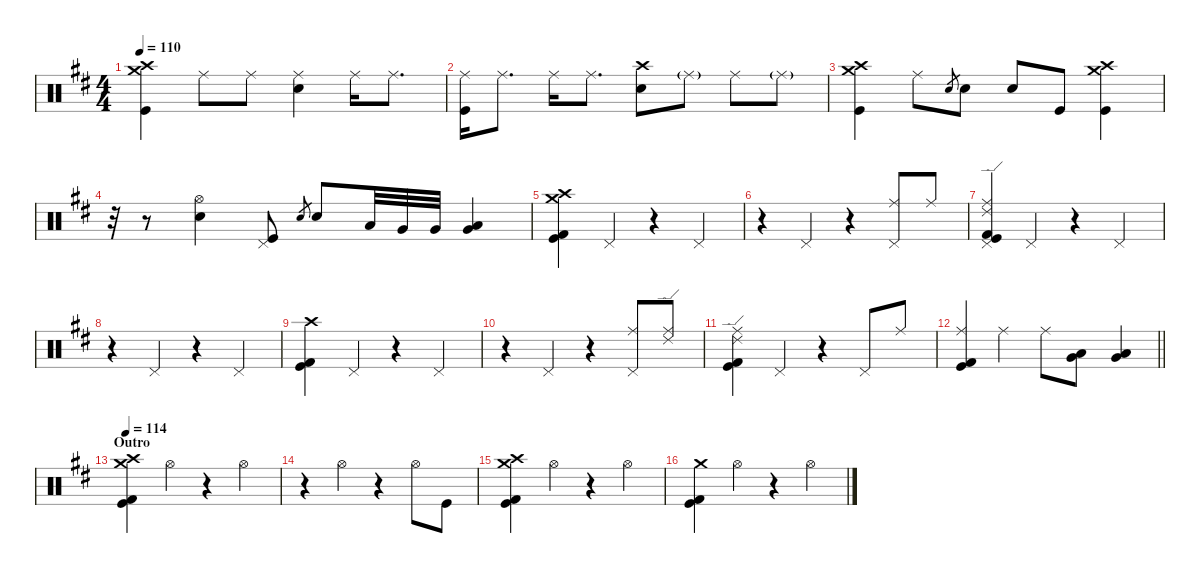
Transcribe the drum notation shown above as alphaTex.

\defaultSystemsLayout 4
\hideDynamics
\bracketExtendMode nobrackets
\singleTrackTrackNamePolicy hidden
\multiTrackTrackNamePolicy hidden
\firstSystemTrackNameMode fullname
\firstSystemTrackNameOrientation horizontal
\otherSystemsTrackNameOrientation horizontal
\track ("Aaron Harris" "drm.") {instrument percussion}
\staff {score}
\articulation defaults
\ts (4 4)
\tempo 110
\clef neutral
\ks bminor
("Crash medium (hit)"{acc forcenatural} "Crash high (hit)"{acc forcenatural} "Kick (hit)"{acc forcenatural}).4{dy f beam Down} "Ride (middle)"{acc forcenatural}.8{beam Down} "Ride (middle)"{acc forcenatural}.8{beam Down} ("Ride (middle)"{acc forcenatural} "Snare (hit) 2"{acc forcenatural}).4{beam Down} "Ride (middle)"{acc forcenatural}.16{dy mf beam Down} "Ride (middle)"{acc forcenatural}.8{d dy f beam Down} |
("Ride (middle)"{acc forcenatural} "Kick (hit)"{acc forcenatural}).16{beam Down} "Ride (middle)"{acc forcenatural}.8{d beam Down} "Ride (middle)"{acc forcenatural}.16{beam Down} "Ride (middle)"{acc forcenatural}.8{d beam Down} ("Crash high (hit)"{acc forcenatural} "Snare (hit) 2"{acc forcenatural}).8{beam Down} "Ride (middle)"{g acc forcenatural}.8{dy mf beam Down} "Ride (middle)"{acc forcenatural}.8{dy f beam Down} "Ride (middle)"{g acc forcenatural}.8{dy mf beam Down} |
("Crash medium (hit)"{acc forcenatural} "Crash high (hit)"{acc forcenatural} "Kick (hit)"{acc forcenatural}).4{dy f beam Down} "Ride (middle)"{acc forcenatural}.8{beam Down} "Electric Snare (hit)"{acc forcenatural}.8{gr beam Up} "Snare (hit) 2"{acc forcenatural}.8{dy ff beam Down} "Snare (hit) 2"{acc forcenatural}.8{beam Up} "Kick (hit)"{acc forcenatural}.8{dy f beam Up} ("Crash medium (hit)"{acc forcenatural} "Crash high (hit)"{acc forcenatural} "Kick (hit)"{acc forcenatural}).4{beam Down} |
r.32{beam Down} r.8{beam Down} ("Hi-Hat (open)"{acc forcenatural} "Snare (hit) 2"{acc forcenatural}).4{beam Down} ("Pedal Hi-Hat (hit)"{acc forcenatural} "Kick (hit)"{acc forcenatural}).8{beam Up} "Electric Snare (hit)"{acc forcenatural}.8{gr dy ff beam Up} "Snare (hit) 2"{acc forcenatural}.8{dy f beam Up} "Low Tom (hit)"{acc forcenatural}.32{beam Up} "Very Low Tom (hit)"{acc forcenatural}.32{beam Up} "Very Low Tom (hit)"{acc forcenatural}.32{beam Up} ("Very Low Tom (hit)"{acc forcenatural} "Low Floor Tom (hit)"{acc forcenatural}).4{beam Up} |
("Crash medium (hit)"{acc forcenatural} "Crash high (hit)"{acc forcenatural} "Kick (hit) 2"{acc forcenatural} "Kick (hit)"{acc forcenatural}).4{beam Down} "Pedal Hi-Hat (hit)"{acc forcenatural}.4{beam Up} r.4{beam Up} "Pedal Hi-Hat (hit)"{acc forcenatural}.4{dy mf beam Up} |
r.4{beam Down} "Pedal Hi-Hat (hit)"{acc forcenatural}.4{beam Up} r.4{beam Up} ("Ride (middle)"{acc forcenatural} "Pedal Hi-Hat (hit)"{acc forcenatural}).8{dy p beam Up} "Ride (middle)"{acc forcenatural}.8{dy f beam Up} |
("Ride (edge) 2"{acc forcenatural} "Ride (middle)"{acc forcenatural} "Pedal Hi-Hat (hit)"{acc forcenatural} "Kick (hit) 2"{acc forcenatural} "Kick (hit)"{acc forcenatural}).4{beam Up} "Pedal Hi-Hat (hit)"{acc forcenatural}.4{beam Up} r.4{beam Up} "Pedal Hi-Hat (hit)"{acc forcenatural}.4{dy mp beam Up} |
r.4{beam Down} "Pedal Hi-Hat (hit)"{acc forcenatural}.4{dy mf beam Up} r.4{beam Up} "Pedal Hi-Hat (hit)"{acc forcenatural}.4{beam Up} |
("Crash high (hit)"{acc forcenatural} "Kick (hit) 2"{acc forcenatural} "Kick (hit)"{acc forcenatural}).4{beam Down} "Pedal Hi-Hat (hit)"{acc forcenatural}.4{beam Up} r.4{beam Up} "Pedal Hi-Hat (hit)"{acc forcenatural}.4{beam Up} |
r.4{beam Down} "Pedal Hi-Hat (hit)"{acc forcenatural}.4{beam Up} r.4{beam Up} ("Ride (middle)"{acc forcenatural} "Pedal Hi-Hat (hit)"{acc forcenatural}).8{dy p beam Up} ("Ride (middle)"{acc forcenatural} "Ride (edge) 2"{acc forcenatural}).8{dy f beam Up} |
("Ride (middle)"{acc forcenatural} "Ride (edge) 2"{acc forcenatural} "Kick (hit) 2"{acc forcenatural} "Kick (hit)"{acc forcenatural}).4{beam Down} "Pedal Hi-Hat (hit)"{acc forcenatural}.4{dy mf beam Up} r.4{beam Up} "Pedal Hi-Hat (hit)"{acc forcenatural}.8{beam Up} "Ride (middle)"{acc forcenatural}.8{dy mp beam Up} |
\barLineRight lightlight
("Ride (middle)"{acc forcenatural} "Kick (hit) 2"{acc forcenatural} "Kick (hit)"{acc forcenatural}).4{dy f beam Up} "Ride (middle)"{acc forcenatural}.4{dy mf beam Down} "Ride (middle)"{acc forcenatural}.8{dy mp beam Down} ("Low Tom (hit)"{acc forcenatural} "Very Low Tom (hit)"{acc forcenatural}).8{dy mf beam Down} ("Low Tom (hit)"{acc forcenatural} "Very Low Tom (hit)"{acc forcenatural}).4{dy f beam Up} |
\section ("" "Outro")
\tempo 114
("Crash medium (hit)"{acc forcenatural} "Crash high (hit)"{acc forcenatural} "Kick (hit) 2"{acc forcenatural} "Kick (hit)"{acc forcenatural}).4{beam Down} "Hi-Hat (open)"{acc forcenatural}.4{beam Down} r.4{beam Down} "Hi-Hat (open)"{acc forcenatural}.4{beam Down} |
r.4{beam Down} "Hi-Hat (open)"{acc forcenatural}.4{beam Down} r.4{beam Down} "Hi-Hat (open)"{acc forcenatural}.8{beam Down} "Kick (hit)"{acc forcenatural}.8{beam Down} |
("Crash medium (hit)"{acc forcenatural} "Crash high (hit)"{acc forcenatural} "Kick (hit) 2"{acc forcenatural} "Kick (hit)"{acc forcenatural}).4{beam Down} "Hi-Hat (open)"{acc forcenatural}.4{beam Down} r.4{beam Down} "Hi-Hat (open)"{acc forcenatural}.4{beam Down} |
("Crash medium (hit)"{acc forcenatural} "Kick (hit) 2"{acc forcenatural} "Kick (hit)"{acc forcenatural}).4{beam Down} "Hi-Hat (open)"{acc forcenatural}.4{beam Down} r.4{beam Down} "Hi-Hat (open)"{acc forcenatural}.4{beam Down}
